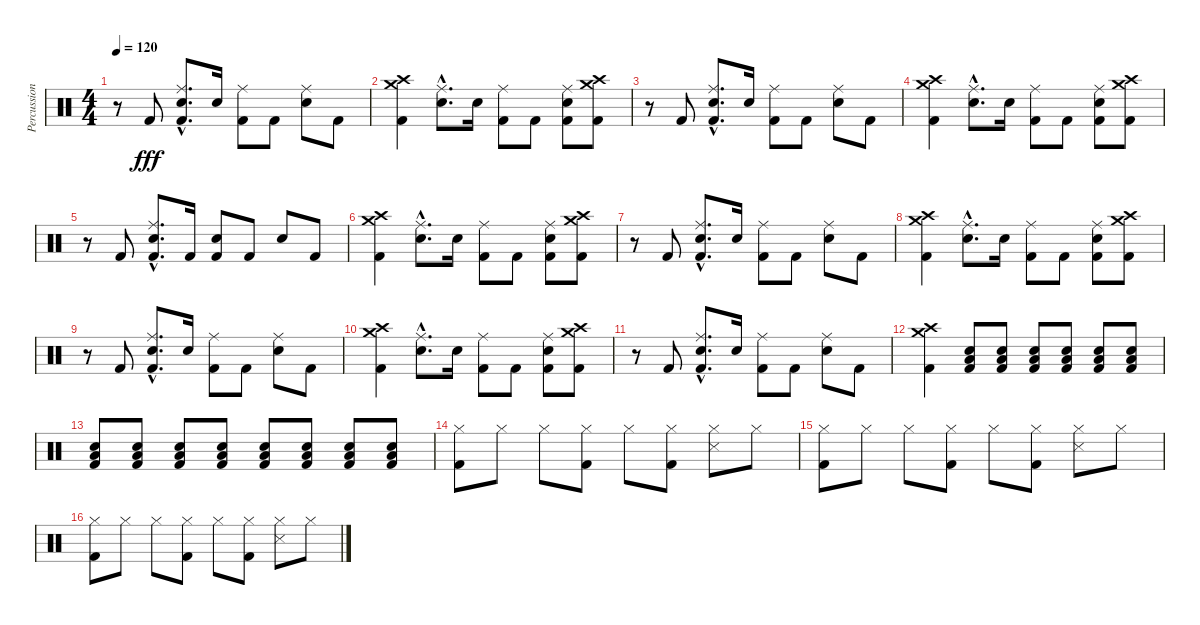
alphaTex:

\track ("Percussion" "Percussion") {instrument percussion}
\staff {score}
\articulation defaults
\ts (4 4)
\tempo 120
\clef neutral
\ks c
r.8{dy fff} "Kick (hit) 2".8 ("Ride (middle)"{hac} "Snare (hit) 2"{hac} "Kick (hit) 2"{hac}).8{d} "Snare (hit) 2".16 ("Ride (middle)" "Kick (hit) 2").8 "Kick (hit) 2".8 ("Ride (middle)" "Snare (hit) 2").8 "Kick (hit) 2".8 |
("Crash high (hit)" "Crash medium (hit)" "Kick (hit) 2").4 ("Ride (middle)"{hac} "Snare (hit) 2"{hac}).8{d} "Snare (hit) 2".16 ("Ride (middle)" "Kick (hit) 2").8 "Kick (hit) 2".8 ("Ride (middle)" "Snare (hit) 2" "Kick (hit) 2").8 ("Crash medium (hit)" "Crash high (hit)" "Kick (hit) 2").8 |
r.8 "Kick (hit) 2".8 ("Ride (middle)"{hac} "Snare (hit) 2"{hac} "Kick (hit) 2"{hac}).8{d} "Snare (hit) 2".16 ("Ride (middle)" "Kick (hit) 2").8 "Kick (hit) 2".8 ("Ride (middle)" "Snare (hit) 2").8 "Kick (hit) 2".8 |
("Crash high (hit)" "Crash medium (hit)" "Kick (hit) 2").4 ("Ride (middle)"{hac} "Snare (hit) 2"{hac}).8{d} "Snare (hit) 2".16 ("Ride (middle)" "Kick (hit) 2").8 "Kick (hit) 2".8 ("Ride (middle)" "Snare (hit) 2" "Kick (hit) 2").8 ("Crash medium (hit)" "Crash high (hit)" "Kick (hit) 2").8 |
r.8 "Kick (hit) 2".8 ("Ride (middle)"{hac} "Snare (hit) 2"{hac} "Kick (hit) 2"{hac}).8{d} "Kick (hit) 2".16 ("Snare (hit) 2" "Kick (hit) 2").8 "Kick (hit) 2".8 "Snare (hit) 2".8 "Kick (hit) 2".8 |
("Crash high (hit)" "Crash medium (hit)" "Kick (hit) 2").4 ("Ride (middle)"{hac} "Snare (hit) 2"{hac}).8{d} "Snare (hit) 2".16 ("Ride (middle)" "Kick (hit) 2").8 "Kick (hit) 2".8 ("Ride (middle)" "Snare (hit) 2" "Kick (hit) 2").8 ("Crash medium (hit)" "Crash high (hit)" "Kick (hit) 2").8 |
r.8 "Kick (hit) 2".8 ("Ride (middle)"{hac} "Snare (hit) 2"{hac} "Kick (hit) 2"{hac}).8{d} "Snare (hit) 2".16 ("Ride (middle)" "Kick (hit) 2").8 "Kick (hit) 2".8 ("Ride (middle)" "Snare (hit) 2").8 "Kick (hit) 2".8 |
("Crash high (hit)" "Crash medium (hit)" "Kick (hit) 2").4 ("Ride (middle)"{hac} "Snare (hit) 2"{hac}).8{d} "Snare (hit) 2".16 ("Ride (middle)" "Kick (hit) 2").8 "Kick (hit) 2".8 ("Ride (middle)" "Snare (hit) 2" "Kick (hit) 2").8 ("Crash medium (hit)" "Crash high (hit)" "Kick (hit) 2").8 |
r.8 "Kick (hit) 2".8 ("Ride (middle)"{hac} "Snare (hit) 2"{hac} "Kick (hit) 2"{hac}).8{d} "Snare (hit) 2".16 ("Ride (middle)" "Kick (hit) 2").8 "Kick (hit) 2".8 ("Ride (middle)" "Snare (hit) 2").8 "Kick (hit) 2".8 |
("Crash high (hit)" "Crash medium (hit)" "Kick (hit) 2").4 ("Ride (middle)"{hac} "Snare (hit) 2"{hac}).8{d} "Snare (hit) 2".16 ("Ride (middle)" "Kick (hit) 2").8 "Kick (hit) 2".8 ("Ride (middle)" "Snare (hit) 2" "Kick (hit) 2").8 ("Crash medium (hit)" "Crash high (hit)" "Kick (hit) 2").8 |
r.8 "Kick (hit) 2".8 ("Ride (middle)"{hac} "Snare (hit) 2"{hac} "Kick (hit) 2"{hac}).8{d} "Snare (hit) 2".16 ("Ride (middle)" "Kick (hit) 2").8 "Kick (hit) 2".8 ("Ride (middle)" "Snare (hit) 2").8 "Kick (hit) 2".8 |
("Crash high (hit)" "Crash medium (hit)" "Kick (hit) 2").4 ("Low Floor Tom (hit)" "Snare (hit) 2" "Kick (hit) 2").8 ("Low Floor Tom (hit)" "Snare (hit) 2" "Kick (hit) 2").8 ("Low Floor Tom (hit)" "Snare (hit) 2" "Kick (hit) 2").8 ("Low Floor Tom (hit)" "Snare (hit) 2" "Kick (hit) 2").8 ("Low Floor Tom (hit)" "Snare (hit) 2" "Kick (hit) 2").8 ("Low Floor Tom (hit)" "Snare (hit) 2" "Kick (hit) 2").8 |
("Low Floor Tom (hit)" "Snare (hit) 2" "Kick (hit) 2").8 ("Low Floor Tom (hit)" "Snare (hit) 2" "Kick (hit) 2").8 ("Low Floor Tom (hit)" "Snare (hit) 2" "Kick (hit) 2").8 ("Low Floor Tom (hit)" "Snare (hit) 2" "Kick (hit) 2").8 ("Low Floor Tom (hit)" "Snare (hit) 2" "Kick (hit) 2").8 ("Low Floor Tom (hit)" "Snare (hit) 2" "Kick (hit) 2").8 ("Low Floor Tom (hit)" "Snare (hit) 2" "Kick (hit) 2").8 ("Low Floor Tom (hit)" "Snare (hit) 2" "Kick (hit) 2").8 |
("Hi-Hat (closed)" "Kick (hit) 2").8 "Hi-Hat (closed)".8 "Hi-Hat (closed)".8 ("Hi-Hat (closed)" "Kick (hit) 2").8 "Hi-Hat (closed)".8 ("Hi-Hat (closed)" "Kick (hit) 2").8 ("Hi-Hat (closed)" "Snare (side stick) 3").8 "Hi-Hat (closed)".8 |
("Hi-Hat (closed)" "Kick (hit) 2").8 "Hi-Hat (closed)".8 "Hi-Hat (closed)".8 ("Hi-Hat (closed)" "Kick (hit) 2").8 "Hi-Hat (closed)".8 ("Hi-Hat (closed)" "Kick (hit) 2").8 ("Hi-Hat (closed)" "Snare (side stick) 3").8 "Hi-Hat (closed)".8 |
("Hi-Hat (closed)" "Kick (hit) 2").8 "Hi-Hat (closed)".8 "Hi-Hat (closed)".8 ("Hi-Hat (closed)" "Kick (hit) 2").8 "Hi-Hat (closed)".8 ("Hi-Hat (closed)" "Kick (hit) 2").8 ("Hi-Hat (closed)" "Snare (side stick) 3").8 "Hi-Hat (closed)".8
